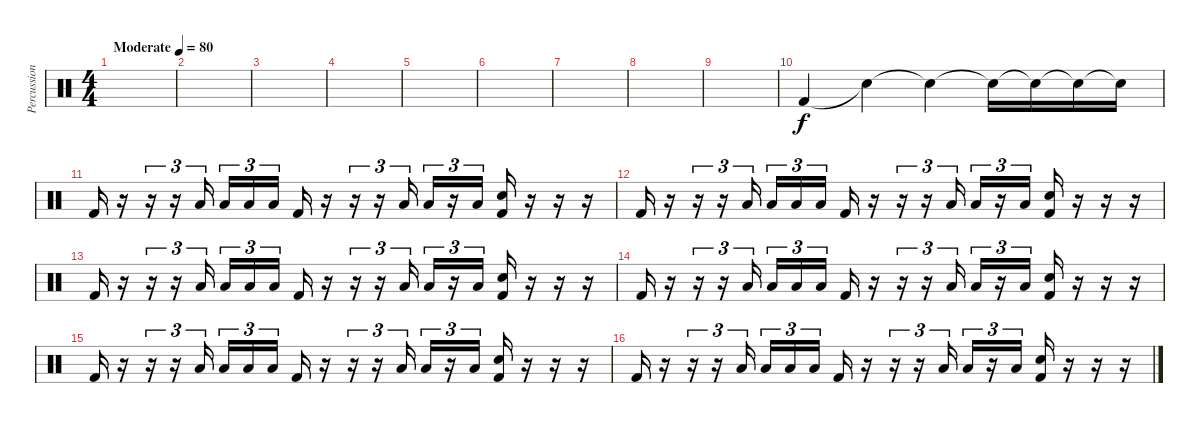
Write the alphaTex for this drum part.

\track ("Percussion" "Percussion") {instrument percussion}
\staff {score}
\articulation defaults
\ts (4 4)
\tempo (80 "Moderate")
\clef neutral
\ks c
|
|
|
|
|
|
|
|
|
"Kick (hit) 2".4 "Snare (hit)"{t}.4 "Snare (hit)"{t}.4 "Snare (hit)"{t}.16 "Snare (hit)"{t}.16 "Snare (hit)"{t}.16 "Snare (hit)"{t}.16 |
"Kick (hit) 2".16 r.16 r.16{tu (3 2)} r.16{tu (3 2)} "Low Floor Tom (hit)".16{tu (3 2) bd 60} "Low Floor Tom (hit)".16{tu (3 2) bu 60} "Low Floor Tom (hit)".16{tu (3 2) bd 60} "Low Floor Tom (hit)".16{tu (3 2) bu 60 beam splitsecondary} "Kick (hit) 2".16 r.16 r.16{tu (3 2)} r.16{tu (3 2)} "Low Floor Tom (hit)".16{tu (3 2) bd 60} "Low Floor Tom (hit)".16{tu (3 2) bu 60} r.16{tu (3 2)} "Low Floor Tom (hit)".16{tu (3 2) bu 60} ("Hand Clap (hit)" "Kick (hit) 2").16 r.16 r.16 r.16 |
"Kick (hit) 2".16 r.16 r.16{tu (3 2)} r.16{tu (3 2)} "Low Floor Tom (hit)".16{tu (3 2) bd 60} "Low Floor Tom (hit)".16{tu (3 2) bu 60} "Low Floor Tom (hit)".16{tu (3 2) bd 60} "Low Floor Tom (hit)".16{tu (3 2) bu 60 beam splitsecondary} "Kick (hit) 2".16 r.16 r.16{tu (3 2)} r.16{tu (3 2)} "Low Floor Tom (hit)".16{tu (3 2) bd 60} "Low Floor Tom (hit)".16{tu (3 2) bu 60} r.16{tu (3 2)} "Low Floor Tom (hit)".16{tu (3 2) bu 60} ("Hand Clap (hit)" "Kick (hit) 2").16 r.16 r.16 r.16 |
"Kick (hit) 2".16 r.16 r.16{tu (3 2)} r.16{tu (3 2)} "Low Floor Tom (hit)".16{tu (3 2) bd 60} "Low Floor Tom (hit)".16{tu (3 2) bu 60} "Low Floor Tom (hit)".16{tu (3 2) bd 60} "Low Floor Tom (hit)".16{tu (3 2) bu 60 beam splitsecondary} "Kick (hit) 2".16 r.16 r.16{tu (3 2)} r.16{tu (3 2)} "Low Floor Tom (hit)".16{tu (3 2) bd 60} "Low Floor Tom (hit)".16{tu (3 2) bu 60} r.16{tu (3 2)} "Low Floor Tom (hit)".16{tu (3 2) bu 60} ("Hand Clap (hit)" "Kick (hit) 2").16 r.16 r.16 r.16 |
"Kick (hit) 2".16 r.16 r.16{tu (3 2)} r.16{tu (3 2)} "Low Floor Tom (hit)".16{tu (3 2) bd 60} "Low Floor Tom (hit)".16{tu (3 2) bu 60} "Low Floor Tom (hit)".16{tu (3 2) bd 60} "Low Floor Tom (hit)".16{tu (3 2) bu 60 beam splitsecondary} "Kick (hit) 2".16 r.16 r.16{tu (3 2)} r.16{tu (3 2)} "Low Floor Tom (hit)".16{tu (3 2) bd 60} "Low Floor Tom (hit)".16{tu (3 2) bu 60} r.16{tu (3 2)} "Low Floor Tom (hit)".16{tu (3 2) bu 60} ("Hand Clap (hit)" "Kick (hit) 2").16 r.16 r.16 r.16 |
"Kick (hit) 2".16 r.16 r.16{tu (3 2)} r.16{tu (3 2)} "Low Floor Tom (hit)".16{tu (3 2) bd 60} "Low Floor Tom (hit)".16{tu (3 2) bu 60} "Low Floor Tom (hit)".16{tu (3 2) bd 60} "Low Floor Tom (hit)".16{tu (3 2) bu 60 beam splitsecondary} "Kick (hit) 2".16 r.16 r.16{tu (3 2)} r.16{tu (3 2)} "Low Floor Tom (hit)".16{tu (3 2) bd 60} "Low Floor Tom (hit)".16{tu (3 2) bu 60} r.16{tu (3 2)} "Low Floor Tom (hit)".16{tu (3 2) bu 60} ("Hand Clap (hit)" "Kick (hit) 2").16 r.16 r.16 r.16 |
"Kick (hit) 2".16 r.16 r.16{tu (3 2)} r.16{tu (3 2)} "Low Floor Tom (hit)".16{tu (3 2) bd 60} "Low Floor Tom (hit)".16{tu (3 2) bu 60} "Low Floor Tom (hit)".16{tu (3 2) bd 60} "Low Floor Tom (hit)".16{tu (3 2) bu 60 beam splitsecondary} "Kick (hit) 2".16 r.16 r.16{tu (3 2)} r.16{tu (3 2)} "Low Floor Tom (hit)".16{tu (3 2) bd 60} "Low Floor Tom (hit)".16{tu (3 2) bu 60} r.16{tu (3 2)} "Low Floor Tom (hit)".16{tu (3 2) bu 60} ("Hand Clap (hit)" "Kick (hit) 2").16 r.16 r.16 r.16
